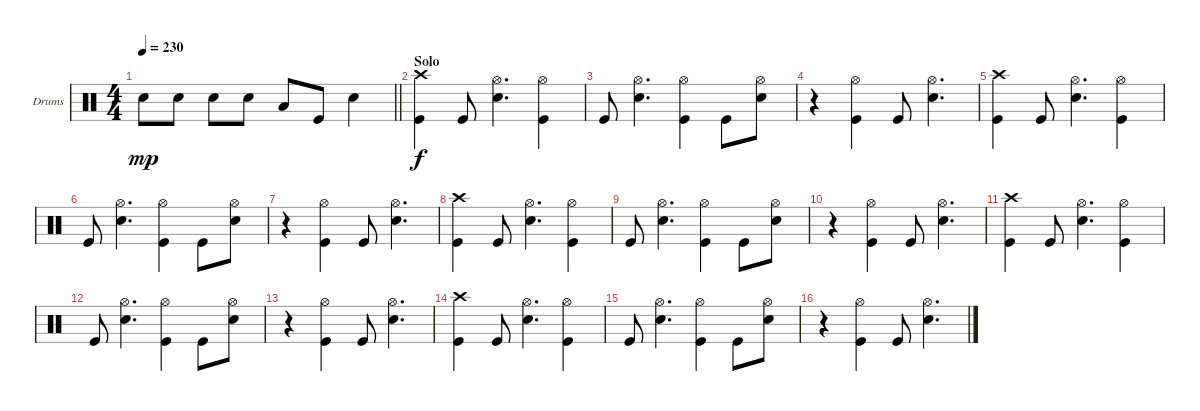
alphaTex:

\bracketExtendMode groupsimilarinstruments
\firstSystemTrackNameOrientation horizontal
\otherSystemsTrackNameOrientation horizontal
\track ("Drumkit" "Drums") {instrument percussion}
\staff {score}
\articulation defaults
\ts (4 4)
\tempo 230
\clef neutral
\barLineRight lightlight
\ks c "Snare (hit) 2".8{dy mp} "Snare (hit) 2".8 "Snare (hit) 2".8 "Snare (hit) 2".8 "Low Tom (hit)".8 "Kick (hit)".8 "Snare (hit) 2".4
|
\section ("" "Solo")
("Crash high (hit)" "Kick (hit)").4{dy f} "Kick (hit)".8 ("Hi-Hat (open)" "Snare (hit) 2").4{d} ("Hi-Hat (open)" "Kick (hit)").4 |
"Kick (hit)".8 ("Hi-Hat (open)" "Snare (hit) 2").4{d} ("Hi-Hat (open)" "Kick (hit)").4 "Kick (hit)".8 ("Hi-Hat (open)" "Snare (hit) 2").8 |
r.4 ("Hi-Hat (open)" "Kick (hit)").4 "Kick (hit)".8 ("Hi-Hat (open)" "Snare (hit) 2").4{d} |
("Crash high (hit)" "Kick (hit)").4 "Kick (hit)".8 ("Hi-Hat (open)" "Snare (hit) 2").4{d} ("Hi-Hat (open)" "Kick (hit)").4 |
"Kick (hit)".8 ("Hi-Hat (open)" "Snare (hit) 2").4{d} ("Hi-Hat (open)" "Kick (hit)").4 "Kick (hit)".8 ("Hi-Hat (open)" "Snare (hit) 2").8 |
r.4 ("Hi-Hat (open)" "Kick (hit)").4 "Kick (hit)".8 ("Hi-Hat (open)" "Snare (hit) 2").4{d} |
("Crash high (hit)" "Kick (hit)").4 "Kick (hit)".8 ("Hi-Hat (open)" "Snare (hit) 2").4{d} ("Hi-Hat (open)" "Kick (hit)").4 |
"Kick (hit)".8 ("Hi-Hat (open)" "Snare (hit) 2").4{d} ("Hi-Hat (open)" "Kick (hit)").4 "Kick (hit)".8 ("Hi-Hat (open)" "Snare (hit) 2").8 |
r.4 ("Hi-Hat (open)" "Kick (hit)").4 "Kick (hit)".8 ("Hi-Hat (open)" "Snare (hit) 2").4{d} |
("Crash high (hit)" "Kick (hit)").4 "Kick (hit)".8 ("Hi-Hat (open)" "Snare (hit) 2").4{d} ("Hi-Hat (open)" "Kick (hit)").4 |
"Kick (hit)".8 ("Hi-Hat (open)" "Snare (hit) 2").4{d} ("Hi-Hat (open)" "Kick (hit)").4 "Kick (hit)".8 ("Hi-Hat (open)" "Snare (hit) 2").8 |
r.4 ("Hi-Hat (open)" "Kick (hit)").4 "Kick (hit)".8 ("Hi-Hat (open)" "Snare (hit) 2").4{d} |
("Crash high (hit)" "Kick (hit)").4 "Kick (hit)".8 ("Hi-Hat (open)" "Snare (hit) 2").4{d} ("Hi-Hat (open)" "Kick (hit)").4 |
"Kick (hit)".8 ("Hi-Hat (open)" "Snare (hit) 2").4{d} ("Hi-Hat (open)" "Kick (hit)").4 "Kick (hit)".8 ("Hi-Hat (open)" "Snare (hit) 2").8 |
r.4 ("Hi-Hat (open)" "Kick (hit)").4 "Kick (hit)".8 ("Hi-Hat (open)" "Snare (hit) 2").4{d}
